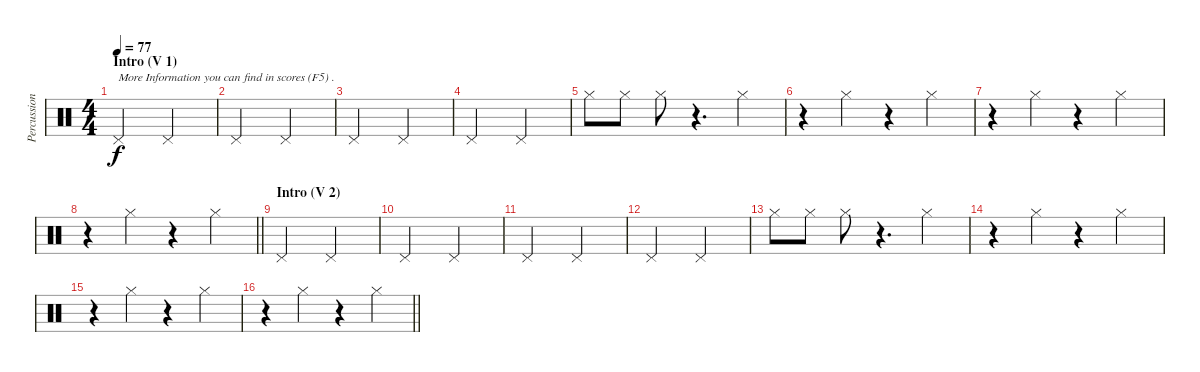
\track ("Percussion" "Percussion") {instrument percussion}
\staff {score}
\articulation defaults
\ts (4 4)
\section ("" "Intro (V 1)")
\tempo 77
\clef neutral
\ks c "Pedal Hi-Hat (hit)".2{txt "More Information you can find in scores (F5) ." dy f} "Pedal Hi-Hat (hit)".2
|
"Pedal Hi-Hat (hit)".2 "Pedal Hi-Hat (hit)".2 |
"Pedal Hi-Hat (hit)".2 "Pedal Hi-Hat (hit)".2 |
"Pedal Hi-Hat (hit)".2 "Pedal Hi-Hat (hit)".2 |
"Hi-Hat (closed)".8 "Hi-Hat (closed)".8 "Hi-Hat (closed)".8 r.4{d} "Hi-Hat (closed)".4 |
r.4 "Hi-Hat (closed)".4 r.4 "Hi-Hat (closed)".4 |
r.4 "Hi-Hat (closed)".4 r.4 "Hi-Hat (closed)".4 |
\barLineRight lightlight
r.4 "Hi-Hat (closed)".4 r.4 "Hi-Hat (closed)".4 |
\section ("" "Intro (V 2)")
"Pedal Hi-Hat (hit)".2 "Pedal Hi-Hat (hit)".2 |
"Pedal Hi-Hat (hit)".2 "Pedal Hi-Hat (hit)".2 |
"Pedal Hi-Hat (hit)".2 "Pedal Hi-Hat (hit)".2 |
"Pedal Hi-Hat (hit)".2 "Pedal Hi-Hat (hit)".2 |
"Hi-Hat (closed)".8 "Hi-Hat (closed)".8 "Hi-Hat (closed)".8 r.4{d} "Hi-Hat (closed)".4 |
r.4 "Hi-Hat (closed)".4 r.4 "Hi-Hat (closed)".4 |
r.4 "Hi-Hat (closed)".4 r.4 "Hi-Hat (closed)".4 |
\barLineRight lightlight
r.4 "Hi-Hat (closed)".4 r.4 "Hi-Hat (closed)".4
